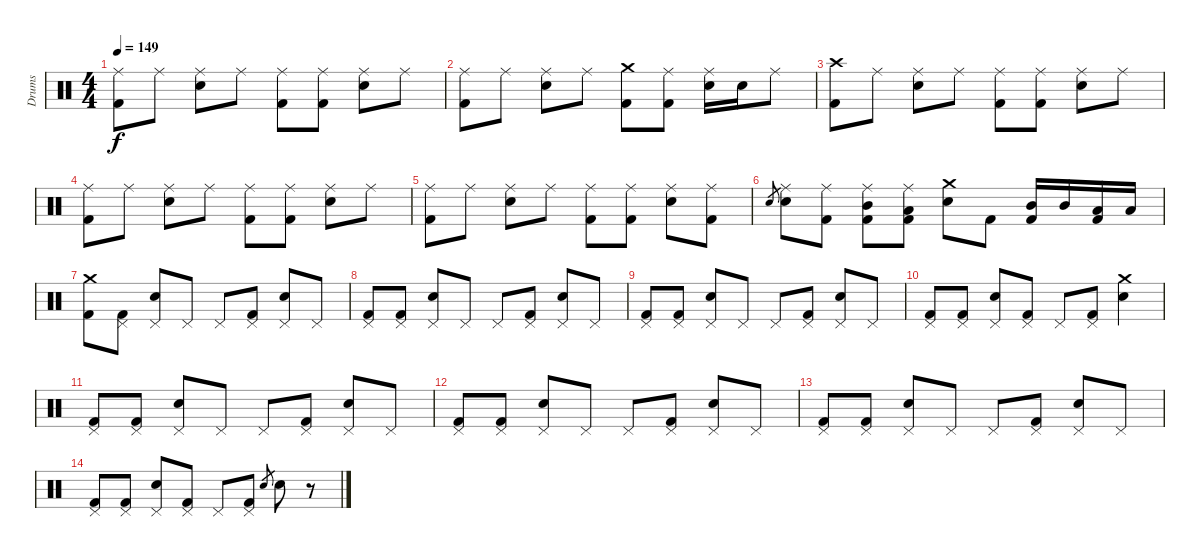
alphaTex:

\track ("Drums" "Drums") {instrument percussion}
\staff {score}
\articulation defaults
\ts (4 4)
\tempo 149
\clef neutral
\ks c
("Ride (middle)" "Kick (hit) 2").8{dy f} "Ride (middle)".8 ("Ride (middle)" "Electric Snare (hit)").8 "Ride (middle)".8 ("Ride (middle)" "Kick (hit) 2").8 ("Ride (middle)" "Kick (hit) 2").8 ("Ride (middle)" "Electric Snare (hit)").8 "Ride (middle)".8 |
("Ride (middle)" "Kick (hit) 2").8 "Ride (middle)".8 ("Ride (middle)" "Electric Snare (hit)").8 "Ride (middle)".8 ("Crash medium (hit)" "Kick (hit) 2").8 ("Ride (middle)" "Kick (hit) 2").8 ("Ride (middle)" "Electric Snare (hit)").16 "Electric Snare (hit)".16 "Ride (middle)".8 |
("Crash high (hit)" "Kick (hit) 2").8 "Ride (middle)".8 ("Ride (middle)" "Electric Snare (hit)").8 "Ride (middle)".8 ("Ride (middle)" "Kick (hit) 2").8 ("Ride (middle)" "Kick (hit) 2").8 ("Ride (middle)" "Electric Snare (hit)").8 "Ride (middle)".8 |
("Ride (middle)" "Kick (hit) 2").8 "Ride (middle)".8 ("Ride (middle)" "Electric Snare (hit)").8 "Ride (middle)".8 ("Ride (middle)" "Kick (hit) 2").8 ("Ride (middle)" "Kick (hit) 2").8 ("Ride (middle)" "Electric Snare (hit)").8 "Ride (middle)".8 |
("Ride (middle)" "Kick (hit) 2").8 "Ride (middle)".8 ("Ride (middle)" "Electric Snare (hit)").8 "Ride (middle)".8 ("Ride (middle)" "Kick (hit) 2").8 ("Ride (middle)" "Kick (hit) 2").8 ("Ride (middle)" "Electric Snare (hit)").8 ("Ride (middle)" "Kick (hit) 2").8 |
"Electric Snare (hit)".8{gr} ("Ride (middle)" "Electric Snare (hit)").8 ("Ride (middle)" "Kick (hit) 2").8 ("Ride (middle)" "Mid Tom (hit)" "Kick (hit) 2").8 ("Ride (middle)" "Low Tom (hit)" "Kick (hit) 2").8 ("Crash medium (hit)" "Electric Snare (hit)").8 "Kick (hit) 2".8 ("Mid Tom (hit)" "Kick (hit) 2").16 "Mid Tom (hit)".16 ("Low Tom (hit)" "Kick (hit) 2").16 "Low Tom (hit)".16 |
("Crash medium (hit)" "Kick (hit) 2").8 ("Pedal Hi-Hat (hit)" "Kick (hit) 2").8 ("Pedal Hi-Hat (hit)" "Electric Snare (hit)").8 "Pedal Hi-Hat (hit)".8 "Pedal Hi-Hat (hit)".8 ("Pedal Hi-Hat (hit)" "Kick (hit) 2").8 ("Pedal Hi-Hat (hit)" "Electric Snare (hit)").8 "Pedal Hi-Hat (hit)".8 |
("Pedal Hi-Hat (hit)" "Kick (hit) 2").8 ("Pedal Hi-Hat (hit)" "Kick (hit) 2").8 ("Pedal Hi-Hat (hit)" "Electric Snare (hit)").8 "Pedal Hi-Hat (hit)".8 "Pedal Hi-Hat (hit)".8 ("Pedal Hi-Hat (hit)" "Kick (hit) 2").8 ("Pedal Hi-Hat (hit)" "Electric Snare (hit)").8 "Pedal Hi-Hat (hit)".8 |
("Pedal Hi-Hat (hit)" "Kick (hit) 2").8 ("Pedal Hi-Hat (hit)" "Kick (hit) 2").8 ("Pedal Hi-Hat (hit)" "Electric Snare (hit)").8 "Pedal Hi-Hat (hit)".8 "Pedal Hi-Hat (hit)".8 ("Pedal Hi-Hat (hit)" "Kick (hit) 2").8 ("Pedal Hi-Hat (hit)" "Electric Snare (hit)").8 "Pedal Hi-Hat (hit)".8 |
("Pedal Hi-Hat (hit)" "Kick (hit) 2").8 ("Pedal Hi-Hat (hit)" "Kick (hit) 2").8 ("Pedal Hi-Hat (hit)" "Electric Snare (hit)").8 ("Pedal Hi-Hat (hit)" "Kick (hit) 2").8 "Pedal Hi-Hat (hit)".8 ("Pedal Hi-Hat (hit)" "Kick (hit) 2").8 ("Crash medium (hit)" "Electric Snare (hit)").4 |
("Pedal Hi-Hat (hit)" "Kick (hit) 2").8 ("Pedal Hi-Hat (hit)" "Kick (hit) 2").8 ("Pedal Hi-Hat (hit)" "Electric Snare (hit)").8 "Pedal Hi-Hat (hit)".8 "Pedal Hi-Hat (hit)".8 ("Pedal Hi-Hat (hit)" "Kick (hit) 2").8 ("Pedal Hi-Hat (hit)" "Electric Snare (hit)").8 "Pedal Hi-Hat (hit)".8 |
("Pedal Hi-Hat (hit)" "Kick (hit) 2").8 ("Pedal Hi-Hat (hit)" "Kick (hit) 2").8 ("Pedal Hi-Hat (hit)" "Electric Snare (hit)").8 "Pedal Hi-Hat (hit)".8 "Pedal Hi-Hat (hit)".8 ("Pedal Hi-Hat (hit)" "Kick (hit) 2").8 ("Pedal Hi-Hat (hit)" "Electric Snare (hit)").8 "Pedal Hi-Hat (hit)".8 |
("Pedal Hi-Hat (hit)" "Kick (hit) 2").8 ("Pedal Hi-Hat (hit)" "Kick (hit) 2").8 ("Pedal Hi-Hat (hit)" "Electric Snare (hit)").8 "Pedal Hi-Hat (hit)".8 "Pedal Hi-Hat (hit)".8 ("Pedal Hi-Hat (hit)" "Kick (hit) 2").8 ("Pedal Hi-Hat (hit)" "Electric Snare (hit)").8 "Pedal Hi-Hat (hit)".8 |
("Pedal Hi-Hat (hit)" "Kick (hit) 2").8 ("Pedal Hi-Hat (hit)" "Kick (hit) 2").8 ("Pedal Hi-Hat (hit)" "Electric Snare (hit)").8 ("Pedal Hi-Hat (hit)" "Kick (hit) 2").8 "Pedal Hi-Hat (hit)".8 ("Pedal Hi-Hat (hit)" "Kick (hit) 2").8 "Electric Snare (hit)".8{gr} "Electric Snare (hit)".8 r.8
